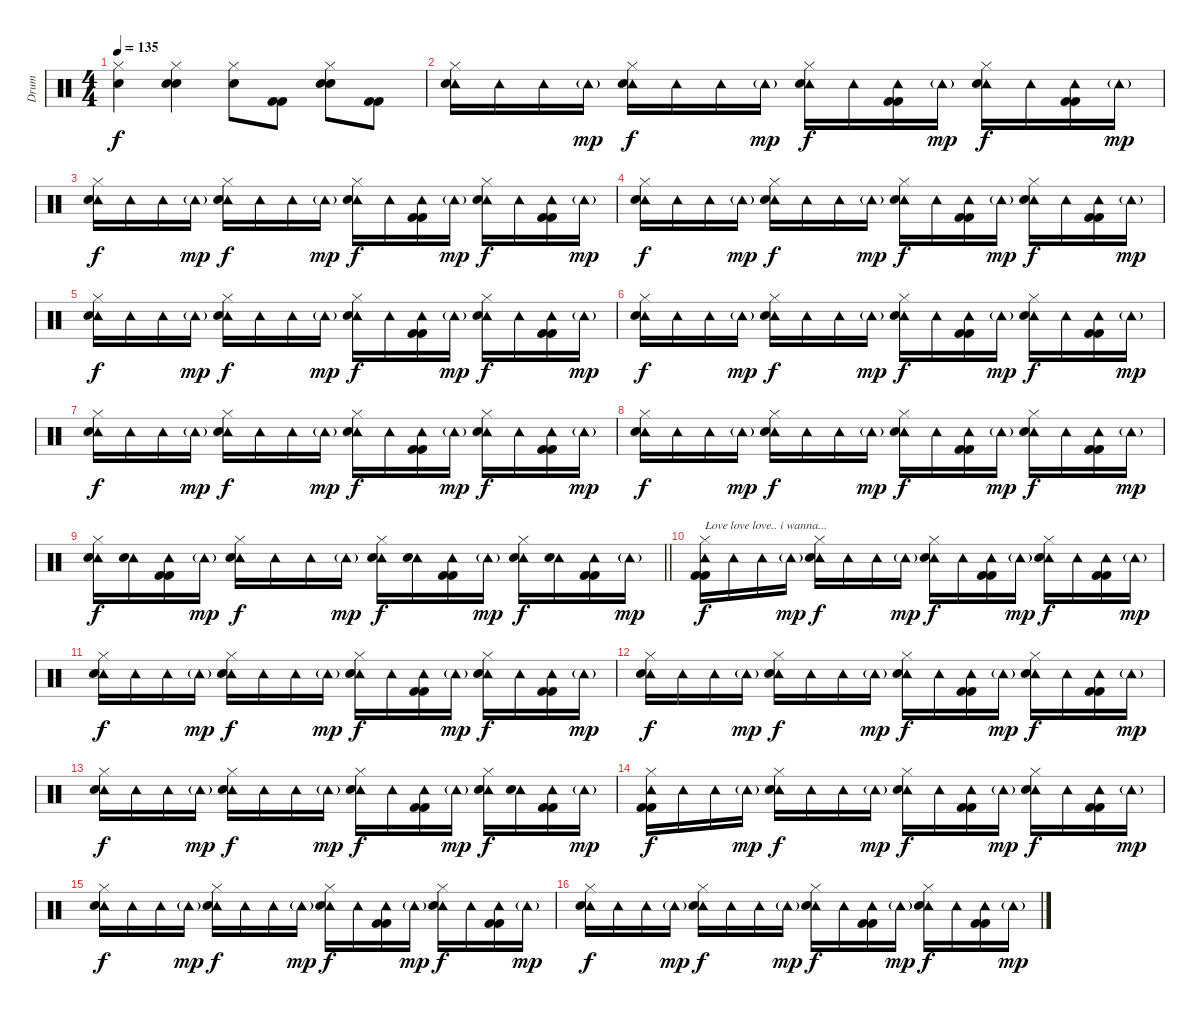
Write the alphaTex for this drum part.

\track ("Drum" "Drum") {instrument percussion}
\staff {score}
\articulation defaults
\ts (4 4)
\tempo 135
\clef neutral
\ks c
("Hi-Hat (closed)" "Electric Snare (hit)").4{dy f} ("Hi-Hat (closed)" "Hand Clap (hit)" "Electric Snare (hit)").4 ("Hi-Hat (closed)" "Electric Snare (hit)").8 ("Kick (hit) 2" "Kick (hit) 2").8 ("Hi-Hat (closed)" "Hand Clap (hit)" "Electric Snare (hit)").8 ("Kick (hit) 2" "Kick (hit) 2").8 |
("Tambourine (hit)" "Hi-Hat (closed)" "Electric Snare (hit)").16 "Tambourine (hit)".16 "Tambourine (hit)".16 "Tambourine (hit)"{g}.16{dy mp} ("Tambourine (hit)" "Hi-Hat (closed)" "Electric Snare (hit)").16{dy f} "Tambourine (hit)".16 "Tambourine (hit)".16 "Tambourine (hit)"{g}.16{dy mp} ("Tambourine (hit)" "Hi-Hat (closed)" "Electric Snare (hit)").16{dy f} "Tambourine (hit)".16 ("Tambourine (hit)" "Kick (hit) 2" "Kick (hit) 2").16 "Tambourine (hit)"{g}.16{dy mp} ("Tambourine (hit)" "Hi-Hat (closed)" "Electric Snare (hit)").16{dy f} "Tambourine (hit)".16 ("Tambourine (hit)" "Kick (hit) 2" "Kick (hit) 2").16 "Tambourine (hit)"{g}.16{dy mp} |
("Tambourine (hit)" "Hi-Hat (closed)" "Electric Snare (hit)").16{dy f} "Tambourine (hit)".16 "Tambourine (hit)".16 "Tambourine (hit)"{g}.16{dy mp} ("Tambourine (hit)" "Hi-Hat (closed)" "Electric Snare (hit)").16{dy f} "Tambourine (hit)".16 "Tambourine (hit)".16 "Tambourine (hit)"{g}.16{dy mp} ("Tambourine (hit)" "Hi-Hat (closed)" "Electric Snare (hit)").16{dy f} "Tambourine (hit)".16 ("Tambourine (hit)" "Kick (hit) 2" "Kick (hit) 2").16 "Tambourine (hit)"{g}.16{dy mp} ("Tambourine (hit)" "Hi-Hat (closed)" "Electric Snare (hit)").16{dy f} "Tambourine (hit)".16 ("Tambourine (hit)" "Kick (hit) 2" "Kick (hit) 2").16 "Tambourine (hit)"{g}.16{dy mp} |
("Tambourine (hit)" "Hi-Hat (closed)" "Electric Snare (hit)").16{dy f} "Tambourine (hit)".16 "Tambourine (hit)".16 "Tambourine (hit)"{g}.16{dy mp} ("Tambourine (hit)" "Hi-Hat (closed)" "Electric Snare (hit)").16{dy f} "Tambourine (hit)".16 "Tambourine (hit)".16 "Tambourine (hit)"{g}.16{dy mp} ("Tambourine (hit)" "Hi-Hat (closed)" "Electric Snare (hit)").16{dy f} "Tambourine (hit)".16 ("Tambourine (hit)" "Kick (hit) 2" "Kick (hit) 2").16 "Tambourine (hit)"{g}.16{dy mp} ("Tambourine (hit)" "Hi-Hat (closed)" "Electric Snare (hit)").16{dy f} "Tambourine (hit)".16 ("Tambourine (hit)" "Kick (hit) 2" "Kick (hit) 2").16 "Tambourine (hit)"{g}.16{dy mp} |
("Tambourine (hit)" "Hi-Hat (closed)" "Electric Snare (hit)").16{dy f} "Tambourine (hit)".16 "Tambourine (hit)".16 "Tambourine (hit)"{g}.16{dy mp} ("Tambourine (hit)" "Hi-Hat (closed)" "Electric Snare (hit)").16{dy f} "Tambourine (hit)".16 "Tambourine (hit)".16 "Tambourine (hit)"{g}.16{dy mp} ("Tambourine (hit)" "Hi-Hat (closed)" "Electric Snare (hit)").16{dy f} "Tambourine (hit)".16 ("Tambourine (hit)" "Kick (hit) 2" "Kick (hit) 2").16 "Tambourine (hit)"{g}.16{dy mp} ("Tambourine (hit)" "Hi-Hat (closed)" "Electric Snare (hit)").16{dy f} "Tambourine (hit)".16 ("Tambourine (hit)" "Kick (hit) 2" "Kick (hit) 2").16 "Tambourine (hit)"{g}.16{dy mp} |
("Tambourine (hit)" "Hi-Hat (closed)" "Electric Snare (hit)").16{dy f} "Tambourine (hit)".16 "Tambourine (hit)".16 "Tambourine (hit)"{g}.16{dy mp} ("Tambourine (hit)" "Hi-Hat (closed)" "Electric Snare (hit)").16{dy f} "Tambourine (hit)".16 "Tambourine (hit)".16 "Tambourine (hit)"{g}.16{dy mp} ("Tambourine (hit)" "Hi-Hat (closed)" "Electric Snare (hit)").16{dy f} "Tambourine (hit)".16 ("Tambourine (hit)" "Kick (hit) 2" "Kick (hit) 2").16 "Tambourine (hit)"{g}.16{dy mp} ("Tambourine (hit)" "Hi-Hat (closed)" "Electric Snare (hit)").16{dy f} "Tambourine (hit)".16 ("Tambourine (hit)" "Kick (hit) 2" "Kick (hit) 2").16 "Tambourine (hit)"{g}.16{dy mp} |
("Tambourine (hit)" "Hi-Hat (closed)" "Electric Snare (hit)").16{dy f} "Tambourine (hit)".16 "Tambourine (hit)".16 "Tambourine (hit)"{g}.16{dy mp} ("Tambourine (hit)" "Hi-Hat (closed)" "Electric Snare (hit)").16{dy f} "Tambourine (hit)".16 "Tambourine (hit)".16 "Tambourine (hit)"{g}.16{dy mp} ("Tambourine (hit)" "Hi-Hat (closed)" "Electric Snare (hit)").16{dy f} "Tambourine (hit)".16 ("Tambourine (hit)" "Kick (hit) 2" "Kick (hit) 2").16 "Tambourine (hit)"{g}.16{dy mp} ("Tambourine (hit)" "Hi-Hat (closed)" "Electric Snare (hit)").16{dy f} "Tambourine (hit)".16 ("Tambourine (hit)" "Kick (hit) 2" "Kick (hit) 2").16 "Tambourine (hit)"{g}.16{dy mp} |
("Tambourine (hit)" "Hi-Hat (closed)" "Electric Snare (hit)").16{dy f} "Tambourine (hit)".16 "Tambourine (hit)".16 "Tambourine (hit)"{g}.16{dy mp} ("Tambourine (hit)" "Hi-Hat (closed)" "Electric Snare (hit)").16{dy f} "Tambourine (hit)".16 "Tambourine (hit)".16 "Tambourine (hit)"{g}.16{dy mp} ("Tambourine (hit)" "Hi-Hat (closed)" "Electric Snare (hit)").16{dy f} "Tambourine (hit)".16 ("Tambourine (hit)" "Kick (hit) 2" "Kick (hit) 2").16 "Tambourine (hit)"{g}.16{dy mp} ("Tambourine (hit)" "Hi-Hat (closed)" "Electric Snare (hit)").16{dy f} "Tambourine (hit)".16 ("Tambourine (hit)" "Kick (hit) 2" "Kick (hit) 2").16 "Tambourine (hit)"{g}.16{dy mp} |
\barLineRight lightlight
("Tambourine (hit)" "Hi-Hat (closed)" "Electric Snare (hit)").16{dy f} ("Tambourine (hit)" "Electric Snare (hit)").16 ("Tambourine (hit)" "Kick (hit) 2" "Kick (hit) 2").16 "Tambourine (hit)"{g}.16{dy mp} ("Tambourine (hit)" "Hi-Hat (closed)" "Electric Snare (hit)").16{dy f} "Tambourine (hit)".16 "Tambourine (hit)".16 "Tambourine (hit)"{g}.16{dy mp} ("Tambourine (hit)" "Hi-Hat (closed)" "Electric Snare (hit)").16{dy f} ("Tambourine (hit)" "Electric Snare (hit)").16 ("Tambourine (hit)" "Kick (hit) 2" "Kick (hit) 2").16 "Tambourine (hit)"{g}.16{dy mp} ("Tambourine (hit)" "Hi-Hat (closed)" "Electric Snare (hit)").16{dy f} ("Tambourine (hit)" "Electric Snare (hit)").16 ("Tambourine (hit)" "Kick (hit) 2" "Kick (hit) 2").16 "Tambourine (hit)"{g}.16{dy mp} |
("Tambourine (hit)" "Hi-Hat (closed)" "Kick (hit) 2" "Kick (hit) 2").16{txt "Love love love.. i wanna..." dy f} "Tambourine (hit)".16 "Tambourine (hit)".16 "Tambourine (hit)"{g}.16{dy mp} ("Tambourine (hit)" "Hi-Hat (closed)" "Electric Snare (hit)").16{dy f} "Tambourine (hit)".16 "Tambourine (hit)".16 "Tambourine (hit)"{g}.16{dy mp} ("Tambourine (hit)" "Hi-Hat (closed)" "Electric Snare (hit)").16{dy f} "Tambourine (hit)".16 ("Tambourine (hit)" "Kick (hit) 2" "Kick (hit) 2").16 "Tambourine (hit)"{g}.16{dy mp} ("Tambourine (hit)" "Hi-Hat (closed)" "Electric Snare (hit)").16{dy f} "Tambourine (hit)".16 ("Tambourine (hit)" "Kick (hit) 2" "Kick (hit) 2").16 "Tambourine (hit)"{g}.16{dy mp} |
("Tambourine (hit)" "Hi-Hat (closed)" "Electric Snare (hit)").16{dy f} "Tambourine (hit)".16 "Tambourine (hit)".16 "Tambourine (hit)"{g}.16{dy mp} ("Tambourine (hit)" "Hi-Hat (closed)" "Electric Snare (hit)").16{dy f} "Tambourine (hit)".16 "Tambourine (hit)".16 "Tambourine (hit)"{g}.16{dy mp} ("Tambourine (hit)" "Hi-Hat (closed)" "Electric Snare (hit)").16{dy f} "Tambourine (hit)".16 ("Tambourine (hit)" "Kick (hit) 2" "Kick (hit) 2").16 "Tambourine (hit)"{g}.16{dy mp} ("Tambourine (hit)" "Hi-Hat (closed)" "Electric Snare (hit)").16{dy f} "Tambourine (hit)".16 ("Tambourine (hit)" "Kick (hit) 2" "Kick (hit) 2").16 "Tambourine (hit)"{g}.16{dy mp} |
("Tambourine (hit)" "Hi-Hat (closed)" "Electric Snare (hit)").16{dy f} "Tambourine (hit)".16 "Tambourine (hit)".16 "Tambourine (hit)"{g}.16{dy mp} ("Tambourine (hit)" "Hi-Hat (closed)" "Electric Snare (hit)").16{dy f} "Tambourine (hit)".16 "Tambourine (hit)".16 "Tambourine (hit)"{g}.16{dy mp} ("Tambourine (hit)" "Hi-Hat (closed)" "Electric Snare (hit)").16{dy f} "Tambourine (hit)".16 ("Tambourine (hit)" "Kick (hit) 2" "Kick (hit) 2").16 "Tambourine (hit)"{g}.16{dy mp} ("Tambourine (hit)" "Hi-Hat (closed)" "Electric Snare (hit)").16{dy f} "Tambourine (hit)".16 ("Tambourine (hit)" "Kick (hit) 2" "Kick (hit) 2").16 "Tambourine (hit)"{g}.16{dy mp} |
("Tambourine (hit)" "Hi-Hat (closed)" "Electric Snare (hit)").16{dy f} "Tambourine (hit)".16 "Tambourine (hit)".16 "Tambourine (hit)"{g}.16{dy mp} ("Tambourine (hit)" "Hi-Hat (closed)" "Electric Snare (hit)").16{dy f} "Tambourine (hit)".16 "Tambourine (hit)".16 "Tambourine (hit)"{g}.16{dy mp} ("Tambourine (hit)" "Hi-Hat (closed)" "Electric Snare (hit)").16{dy f} "Tambourine (hit)".16 ("Tambourine (hit)" "Kick (hit) 2" "Kick (hit) 2").16 "Tambourine (hit)"{g}.16{dy mp} ("Tambourine (hit)" "Hi-Hat (closed)" "Electric Snare (hit)").16{dy f} ("Tambourine (hit)" "Electric Snare (hit)").16 ("Tambourine (hit)" "Kick (hit) 2" "Kick (hit) 2").16 "Tambourine (hit)"{g}.16{dy mp} |
("Tambourine (hit)" "Hi-Hat (closed)" "Kick (hit) 2" "Kick (hit) 2").16{dy f} "Tambourine (hit)".16 "Tambourine (hit)".16 "Tambourine (hit)"{g}.16{dy mp} ("Tambourine (hit)" "Hi-Hat (closed)" "Electric Snare (hit)").16{dy f} "Tambourine (hit)".16 "Tambourine (hit)".16 "Tambourine (hit)"{g}.16{dy mp} ("Tambourine (hit)" "Hi-Hat (closed)" "Electric Snare (hit)").16{dy f} "Tambourine (hit)".16 ("Tambourine (hit)" "Kick (hit) 2" "Kick (hit) 2").16 "Tambourine (hit)"{g}.16{dy mp} ("Tambourine (hit)" "Hi-Hat (closed)" "Electric Snare (hit)").16{dy f} "Tambourine (hit)".16 ("Tambourine (hit)" "Kick (hit) 2" "Kick (hit) 2").16 "Tambourine (hit)"{g}.16{dy mp} |
("Tambourine (hit)" "Hi-Hat (closed)" "Electric Snare (hit)").16{dy f} "Tambourine (hit)".16 "Tambourine (hit)".16 "Tambourine (hit)"{g}.16{dy mp} ("Tambourine (hit)" "Hi-Hat (closed)" "Electric Snare (hit)").16{dy f} "Tambourine (hit)".16 "Tambourine (hit)".16 "Tambourine (hit)"{g}.16{dy mp} ("Tambourine (hit)" "Hi-Hat (closed)" "Electric Snare (hit)").16{dy f} "Tambourine (hit)".16 ("Tambourine (hit)" "Kick (hit) 2" "Kick (hit) 2").16 "Tambourine (hit)"{g}.16{dy mp} ("Tambourine (hit)" "Hi-Hat (closed)" "Electric Snare (hit)").16{dy f} "Tambourine (hit)".16 ("Tambourine (hit)" "Kick (hit) 2" "Kick (hit) 2").16 "Tambourine (hit)"{g}.16{dy mp} |
("Tambourine (hit)" "Hi-Hat (closed)" "Electric Snare (hit)").16{dy f} "Tambourine (hit)".16 "Tambourine (hit)".16 "Tambourine (hit)"{g}.16{dy mp} ("Tambourine (hit)" "Hi-Hat (closed)" "Electric Snare (hit)").16{dy f} "Tambourine (hit)".16 "Tambourine (hit)".16 "Tambourine (hit)"{g}.16{dy mp} ("Tambourine (hit)" "Hi-Hat (closed)" "Electric Snare (hit)").16{dy f} "Tambourine (hit)".16 ("Tambourine (hit)" "Kick (hit) 2" "Kick (hit) 2").16 "Tambourine (hit)"{g}.16{dy mp} ("Tambourine (hit)" "Hi-Hat (closed)" "Electric Snare (hit)").16{dy f} "Tambourine (hit)".16 ("Tambourine (hit)" "Kick (hit) 2" "Kick (hit) 2").16 "Tambourine (hit)"{g}.16{dy mp}
